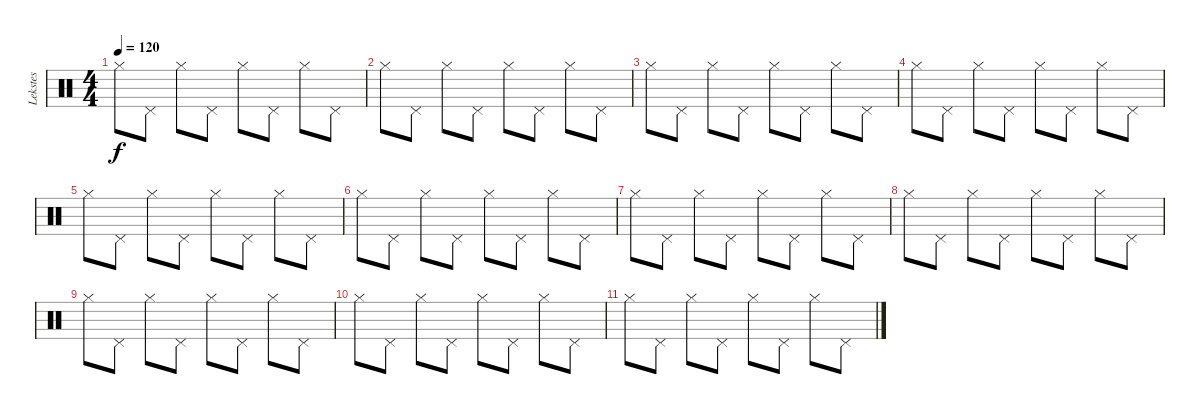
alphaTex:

\track ("Lekstes" "Lekstes") {instrument percussion}
\staff {score}
\articulation defaults
\ts (4 4)
\tempo 120
\clef neutral
\ks c "Hi-Hat (closed)".8{dy f} "Pedal Hi-Hat (hit)".8 "Hi-Hat (closed)".8 "Pedal Hi-Hat (hit)".8 "Hi-Hat (closed)".8 "Pedal Hi-Hat (hit)".8 "Hi-Hat (closed)".8 "Pedal Hi-Hat (hit)".8
|
"Hi-Hat (closed)".8 "Pedal Hi-Hat (hit)".8 "Hi-Hat (closed)".8 "Pedal Hi-Hat (hit)".8 "Hi-Hat (closed)".8 "Pedal Hi-Hat (hit)".8 "Hi-Hat (closed)".8 "Pedal Hi-Hat (hit)".8 |
"Hi-Hat (closed)".8 "Pedal Hi-Hat (hit)".8 "Hi-Hat (closed)".8 "Pedal Hi-Hat (hit)".8 "Hi-Hat (closed)".8 "Pedal Hi-Hat (hit)".8 "Hi-Hat (closed)".8 "Pedal Hi-Hat (hit)".8 |
"Hi-Hat (closed)".8 "Pedal Hi-Hat (hit)".8 "Hi-Hat (closed)".8 "Pedal Hi-Hat (hit)".8 "Hi-Hat (closed)".8 "Pedal Hi-Hat (hit)".8 "Hi-Hat (closed)".8 "Pedal Hi-Hat (hit)".8 |
"Hi-Hat (closed)".8 "Pedal Hi-Hat (hit)".8 "Hi-Hat (closed)".8 "Pedal Hi-Hat (hit)".8 "Hi-Hat (closed)".8 "Pedal Hi-Hat (hit)".8 "Hi-Hat (closed)".8 "Pedal Hi-Hat (hit)".8 |
"Hi-Hat (closed)".8 "Pedal Hi-Hat (hit)".8 "Hi-Hat (closed)".8 "Pedal Hi-Hat (hit)".8 "Hi-Hat (closed)".8 "Pedal Hi-Hat (hit)".8 "Hi-Hat (closed)".8 "Pedal Hi-Hat (hit)".8 |
"Hi-Hat (closed)".8 "Pedal Hi-Hat (hit)".8 "Hi-Hat (closed)".8 "Pedal Hi-Hat (hit)".8 "Hi-Hat (closed)".8 "Pedal Hi-Hat (hit)".8 "Hi-Hat (closed)".8 "Pedal Hi-Hat (hit)".8 |
"Hi-Hat (closed)".8 "Pedal Hi-Hat (hit)".8 "Hi-Hat (closed)".8 "Pedal Hi-Hat (hit)".8 "Hi-Hat (closed)".8 "Pedal Hi-Hat (hit)".8 "Hi-Hat (closed)".8 "Pedal Hi-Hat (hit)".8 |
"Hi-Hat (closed)".8 "Pedal Hi-Hat (hit)".8 "Hi-Hat (closed)".8 "Pedal Hi-Hat (hit)".8 "Hi-Hat (closed)".8 "Pedal Hi-Hat (hit)".8 "Hi-Hat (closed)".8 "Pedal Hi-Hat (hit)".8 |
"Hi-Hat (closed)".8 "Pedal Hi-Hat (hit)".8 "Hi-Hat (closed)".8 "Pedal Hi-Hat (hit)".8 "Hi-Hat (closed)".8 "Pedal Hi-Hat (hit)".8 "Hi-Hat (closed)".8 "Pedal Hi-Hat (hit)".8 |
"Hi-Hat (closed)".8 "Pedal Hi-Hat (hit)".8 "Hi-Hat (closed)".8 "Pedal Hi-Hat (hit)".8 "Hi-Hat (closed)".8 "Pedal Hi-Hat (hit)".8 "Hi-Hat (closed)".8 "Pedal Hi-Hat (hit)".8
